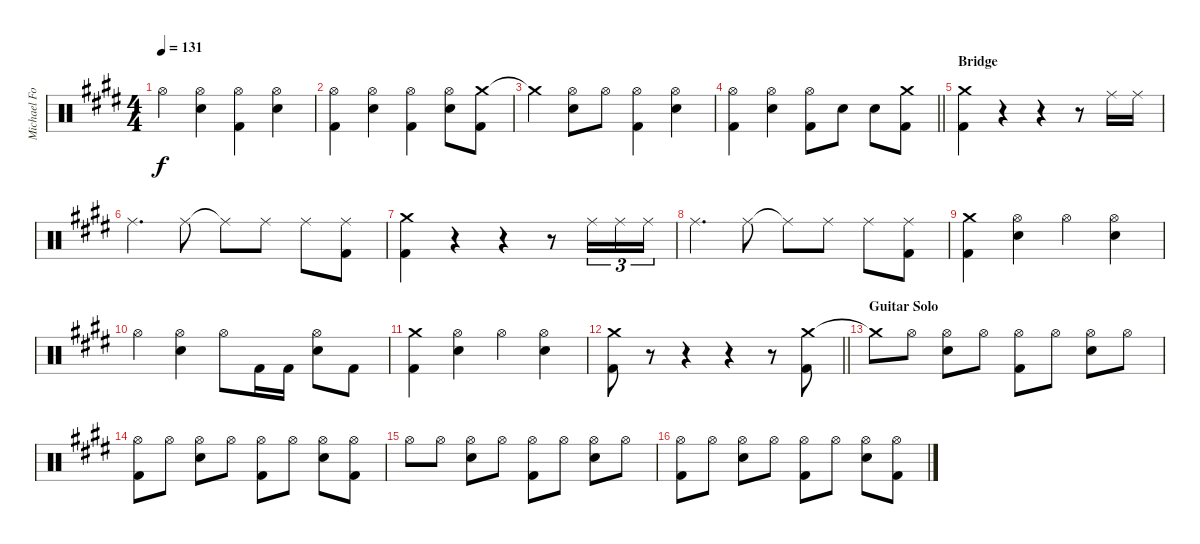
\track ("Michael Foster Drums" "Michael Fo") {instrument percussion}
\staff {score}
\articulation defaults
\ts (4 4)
\tempo 131
\clef neutral
\ks e "Hi-Hat (open)".4{dy f}
("Hi-Hat (open)" "Snare (hit) 2").4 ("Hi-Hat (open)" "Kick (hit) 2").4 ("Hi-Hat (open)" "Snare (hit) 2").4 |
("Hi-Hat (open)" "Kick (hit) 2").4 ("Hi-Hat (open)" "Snare (hit) 2").4 ("Hi-Hat (open)" "Kick (hit) 2").4 ("Hi-Hat (open)" "Snare (hit) 2").8 ("Crash medium (hit)" "Kick (hit) 2").8 |
"Crash medium (hit)"{t}.4 ("Hi-Hat (open)" "Snare (hit) 2").8 "Hi-Hat (open)".8 ("Hi-Hat (open)" "Kick (hit) 2").4 ("Hi-Hat (open)" "Snare (hit) 2").4 |
\barLineRight lightlight
("Hi-Hat (open)" "Kick (hit) 2").4 ("Hi-Hat (open)" "Snare (hit) 2").4 ("Hi-Hat (open)" "Kick (hit) 2").8 "Snare (hit) 2".8 "Snare (hit) 2".8 ("Crash medium (hit)" "Kick (hit) 2").8 |
\section ("" "Bridge")
("Crash medium (hit)" "Kick (hit) 2").4 r.4 r.4 r.8 "Ride (middle)".16 "Ride (middle)".16 |
"Ride (middle)".4{d} "Ride (middle)".8 "Ride (middle)"{t}.8 "Ride (middle)".8 "Ride (middle)".8 ("Ride (middle)" "Kick (hit) 2").8 |
("Crash medium (hit)" "Kick (hit) 2").4 r.4 r.4 r.8 "Ride (middle)".16{tu (3 2)} "Ride (middle)".16{tu (3 2)} "Ride (middle)".16{tu (3 2)} |
"Ride (middle)".4{d} "Ride (middle)".8 "Ride (middle)"{t}.8 "Ride (middle)".8 "Ride (middle)".8 ("Ride (middle)" "Kick (hit) 2").8 |
("Crash medium (hit)" "Kick (hit) 2").4 ("Hi-Hat (open)" "Snare (hit) 2").4 "Hi-Hat (open)".4 ("Hi-Hat (open)" "Snare (hit) 2").4 |
"Hi-Hat (open)".4 ("Hi-Hat (open)" "Snare (hit) 2").4 "Hi-Hat (open)".8 "Kick (hit) 2".16 "Kick (hit) 2".16 ("Hi-Hat (open)" "Snare (hit) 2").8 "Kick (hit) 2".8 |
("Crash medium (hit)" "Kick (hit) 2").4 ("Hi-Hat (open)" "Snare (hit) 2").4 "Hi-Hat (open)".4 ("Hi-Hat (open)" "Snare (hit) 2").4 |
\barLineRight lightlight
("Crash medium (hit)" "Kick (hit) 2").8 r.8 r.4 r.4 r.8 ("Crash medium (hit)" "Kick (hit) 2").8 |
\section ("" "Guitar Solo")
"Crash medium (hit)"{t}.8 "Hi-Hat (open)".8 ("Hi-Hat (open)" "Snare (hit) 2").8 "Hi-Hat (open)".8 ("Hi-Hat (open)" "Kick (hit) 2").8 "Hi-Hat (open)".8 ("Hi-Hat (open)" "Snare (hit) 2").8 "Hi-Hat (open)".8 |
("Hi-Hat (open)" "Kick (hit) 2").8 "Hi-Hat (open)".8 ("Hi-Hat (open)" "Snare (hit) 2").8 "Hi-Hat (open)".8 ("Hi-Hat (open)" "Kick (hit) 2").8 "Hi-Hat (open)".8 ("Hi-Hat (open)" "Snare (hit) 2").8 ("Hi-Hat (open)" "Kick (hit) 2").8 |
"Hi-Hat (open)".8 "Hi-Hat (open)".8 ("Hi-Hat (open)" "Snare (hit) 2").8 "Hi-Hat (open)".8 ("Hi-Hat (open)" "Kick (hit) 2").8 "Hi-Hat (open)".8 ("Hi-Hat (open)" "Snare (hit) 2").8 "Hi-Hat (open)".8 |
("Hi-Hat (open)" "Kick (hit) 2").8 "Hi-Hat (open)".8 ("Hi-Hat (open)" "Snare (hit) 2").8 "Hi-Hat (open)".8 ("Hi-Hat (open)" "Kick (hit) 2").8 "Hi-Hat (open)".8 ("Hi-Hat (open)" "Snare (hit) 2").8 ("Hi-Hat (open)" "Kick (hit) 2").8
